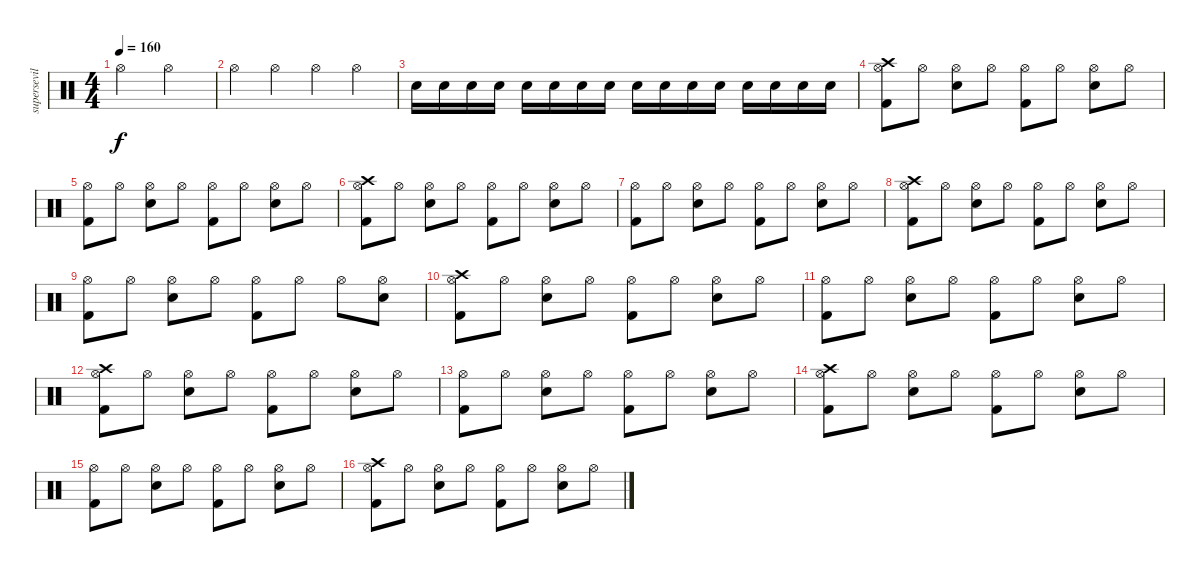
\track ("supersevilla" "supersevil") {instrument percussion}
\staff {score}
\articulation defaults
\ts (4 4)
\tempo 160
\clef neutral
\ks c "Hi-Hat (open)".2{dy f} "Hi-Hat (open)".2
|
"Hi-Hat (open)".4 "Hi-Hat (open)".4 "Hi-Hat (open)".4 "Hi-Hat (open)".4 |
"Electric Snare (hit)".16 "Electric Snare (hit)".16 "Electric Snare (hit)".16 "Electric Snare (hit)".16 "Electric Snare (hit)".16 "Electric Snare (hit)".16 "Electric Snare (hit)".16 "Electric Snare (hit)".16 "Electric Snare (hit)".16 "Electric Snare (hit)".16 "Electric Snare (hit)".16 "Electric Snare (hit)".16 "Electric Snare (hit)".16 "Electric Snare (hit)".16 "Electric Snare (hit)".16 "Electric Snare (hit)".16 |
("Hi-Hat (open)" "Kick (hit) 2" "Crash high (hit)").8 "Hi-Hat (open)".8 ("Hi-Hat (open)" "Electric Snare (hit)").8 "Hi-Hat (open)".8 ("Hi-Hat (open)" "Kick (hit) 2").8 "Hi-Hat (open)".8 ("Hi-Hat (open)" "Electric Snare (hit)").8 "Hi-Hat (open)".8 |
("Hi-Hat (open)" "Kick (hit) 2").8 "Hi-Hat (open)".8 ("Hi-Hat (open)" "Electric Snare (hit)").8 "Hi-Hat (open)".8 ("Hi-Hat (open)" "Kick (hit) 2").8 "Hi-Hat (open)".8 ("Hi-Hat (open)" "Electric Snare (hit)").8 "Hi-Hat (open)".8 |
("Hi-Hat (open)" "Kick (hit) 2" "Crash high (hit)").8 "Hi-Hat (open)".8 ("Hi-Hat (open)" "Electric Snare (hit)").8 "Hi-Hat (open)".8 ("Hi-Hat (open)" "Kick (hit) 2").8 "Hi-Hat (open)".8 ("Hi-Hat (open)" "Electric Snare (hit)").8 "Hi-Hat (open)".8 |
("Hi-Hat (open)" "Kick (hit) 2").8 "Hi-Hat (open)".8 ("Hi-Hat (open)" "Electric Snare (hit)").8 "Hi-Hat (open)".8 ("Hi-Hat (open)" "Kick (hit) 2").8 "Hi-Hat (open)".8 ("Hi-Hat (open)" "Electric Snare (hit)").8 "Hi-Hat (open)".8 |
("Hi-Hat (open)" "Kick (hit) 2" "Crash high (hit)").8 "Hi-Hat (open)".8 ("Hi-Hat (open)" "Electric Snare (hit)").8 "Hi-Hat (open)".8 ("Hi-Hat (open)" "Kick (hit) 2").8 "Hi-Hat (open)".8 ("Hi-Hat (open)" "Electric Snare (hit)").8 "Hi-Hat (open)".8 |
("Hi-Hat (open)" "Kick (hit) 2").8 "Hi-Hat (open)".8 ("Hi-Hat (open)" "Electric Snare (hit)").8 "Hi-Hat (open)".8 ("Hi-Hat (open)" "Kick (hit) 2").8 "Hi-Hat (open)".8 "Hi-Hat (open)".8 ("Hi-Hat (open)" "Electric Snare (hit)").8 |
("Hi-Hat (open)" "Kick (hit) 2" "Crash high (hit)").8 "Hi-Hat (open)".8 ("Hi-Hat (open)" "Electric Snare (hit)").8 "Hi-Hat (open)".8 ("Hi-Hat (open)" "Kick (hit) 2").8 "Hi-Hat (open)".8 ("Hi-Hat (open)" "Electric Snare (hit)").8 "Hi-Hat (open)".8 |
("Hi-Hat (open)" "Kick (hit) 2").8 "Hi-Hat (open)".8 ("Hi-Hat (open)" "Electric Snare (hit)").8 "Hi-Hat (open)".8 ("Hi-Hat (open)" "Kick (hit) 2").8 "Hi-Hat (open)".8 ("Hi-Hat (open)" "Electric Snare (hit)").8 "Hi-Hat (open)".8 |
("Hi-Hat (open)" "Kick (hit) 2" "Crash high (hit)").8 "Hi-Hat (open)".8 ("Hi-Hat (open)" "Electric Snare (hit)").8 "Hi-Hat (open)".8 ("Hi-Hat (open)" "Kick (hit) 2").8 "Hi-Hat (open)".8 ("Hi-Hat (open)" "Electric Snare (hit)").8 "Hi-Hat (open)".8 |
("Hi-Hat (open)" "Kick (hit) 2").8 "Hi-Hat (open)".8 ("Hi-Hat (open)" "Electric Snare (hit)").8 "Hi-Hat (open)".8 ("Hi-Hat (open)" "Kick (hit) 2").8 "Hi-Hat (open)".8 ("Hi-Hat (open)" "Electric Snare (hit)").8 "Hi-Hat (open)".8 |
("Hi-Hat (open)" "Kick (hit) 2" "Crash high (hit)").8 "Hi-Hat (open)".8 ("Hi-Hat (open)" "Electric Snare (hit)").8 "Hi-Hat (open)".8 ("Hi-Hat (open)" "Kick (hit) 2").8 "Hi-Hat (open)".8 ("Hi-Hat (open)" "Electric Snare (hit)").8 "Hi-Hat (open)".8 |
("Hi-Hat (open)" "Kick (hit) 2").8 "Hi-Hat (open)".8 ("Hi-Hat (open)" "Electric Snare (hit)").8 "Hi-Hat (open)".8 ("Hi-Hat (open)" "Kick (hit) 2").8 "Hi-Hat (open)".8 ("Hi-Hat (open)" "Electric Snare (hit)").8 "Hi-Hat (open)".8 |
("Hi-Hat (open)" "Kick (hit) 2" "Crash high (hit)").8 "Hi-Hat (open)".8 ("Hi-Hat (open)" "Electric Snare (hit)").8 "Hi-Hat (open)".8 ("Hi-Hat (open)" "Kick (hit) 2").8 "Hi-Hat (open)".8 ("Hi-Hat (open)" "Electric Snare (hit)").8 "Hi-Hat (open)".8
